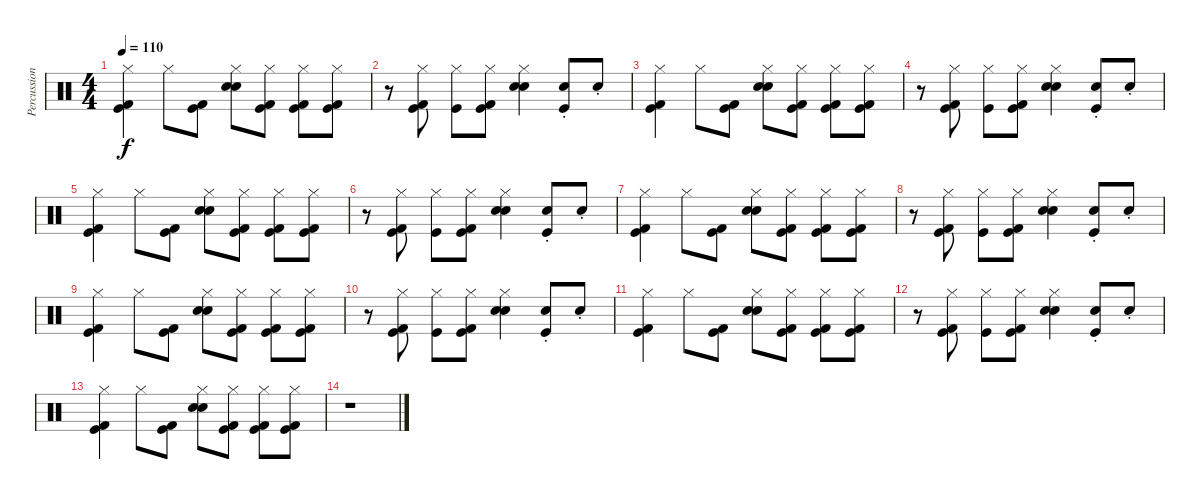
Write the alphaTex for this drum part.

\track ("Percussions" "Percussion") {instrument percussion}
\staff {score}
\articulation defaults
\ts (4 4)
\tempo 110
\clef neutral
\ks c
("Kick (hit) 2" "Kick (hit)" "Hi-Hat (closed)").4{dy f} "Hi-Hat (closed)".8 ("Kick (hit) 2" "Kick (hit)").8 ("Snare (hit) 2" "Hi-Hat (closed)" "Electric Snare (hit)").8 ("Kick (hit) 2" "Kick (hit)" "Hi-Hat (closed)").8 ("Kick (hit) 2" "Kick (hit)" "Hi-Hat (closed)").8 ("Kick (hit) 2" "Kick (hit)" "Hi-Hat (closed)").8 |
r.8 ("Kick (hit) 2" "Kick (hit)" "Hi-Hat (closed)").8 ("Kick (hit)" "Hi-Hat (closed)").8 ("Kick (hit) 2" "Kick (hit)" "Hi-Hat (closed)").8 ("Snare (hit) 2" "Hi-Hat (closed)" "Electric Snare (hit)").4 ("Kick (hit)" "Hand Clap (hit)"{st}).8 "Hand Clap (hit)"{st}.8 |
("Kick (hit) 2" "Kick (hit)" "Hi-Hat (closed)").4 "Hi-Hat (closed)".8 ("Kick (hit) 2" "Kick (hit)").8 ("Snare (hit) 2" "Hi-Hat (closed)" "Electric Snare (hit)").8 ("Kick (hit) 2" "Kick (hit)" "Hi-Hat (closed)").8 ("Kick (hit) 2" "Kick (hit)" "Hi-Hat (closed)").8 ("Kick (hit) 2" "Kick (hit)" "Hi-Hat (closed)").8 |
r.8 ("Kick (hit) 2" "Kick (hit)" "Hi-Hat (closed)").8 ("Kick (hit)" "Hi-Hat (closed)").8 ("Kick (hit) 2" "Kick (hit)" "Hi-Hat (closed)").8 ("Snare (hit) 2" "Hi-Hat (closed)" "Electric Snare (hit)").4 ("Kick (hit)" "Hand Clap (hit)"{st}).8 "Hand Clap (hit)"{st}.8 |
("Kick (hit) 2" "Kick (hit)" "Hi-Hat (closed)").4 "Hi-Hat (closed)".8 ("Kick (hit) 2" "Kick (hit)").8 ("Snare (hit) 2" "Hi-Hat (closed)" "Electric Snare (hit)").8 ("Kick (hit) 2" "Kick (hit)" "Hi-Hat (closed)").8 ("Kick (hit) 2" "Kick (hit)" "Hi-Hat (closed)").8 ("Kick (hit) 2" "Kick (hit)" "Hi-Hat (closed)").8 |
r.8 ("Kick (hit) 2" "Kick (hit)" "Hi-Hat (closed)").8 ("Kick (hit)" "Hi-Hat (closed)").8 ("Kick (hit) 2" "Kick (hit)" "Hi-Hat (closed)").8 ("Snare (hit) 2" "Hi-Hat (closed)" "Electric Snare (hit)").4 ("Kick (hit)" "Hand Clap (hit)"{st}).8 "Hand Clap (hit)"{st}.8 |
("Kick (hit) 2" "Kick (hit)" "Hi-Hat (closed)").4 "Hi-Hat (closed)".8 ("Kick (hit) 2" "Kick (hit)").8 ("Snare (hit) 2" "Hi-Hat (closed)" "Electric Snare (hit)").8 ("Kick (hit) 2" "Kick (hit)" "Hi-Hat (closed)").8 ("Kick (hit) 2" "Kick (hit)" "Hi-Hat (closed)").8 ("Kick (hit) 2" "Kick (hit)" "Hi-Hat (closed)").8 |
r.8 ("Kick (hit) 2" "Kick (hit)" "Hi-Hat (closed)").8 ("Kick (hit)" "Hi-Hat (closed)").8 ("Kick (hit) 2" "Kick (hit)" "Hi-Hat (closed)").8 ("Snare (hit) 2" "Hi-Hat (closed)" "Electric Snare (hit)").4 ("Kick (hit)" "Hand Clap (hit)"{st}).8 "Hand Clap (hit)"{st}.8 |
("Kick (hit) 2" "Kick (hit)" "Hi-Hat (closed)").4 "Hi-Hat (closed)".8 ("Kick (hit) 2" "Kick (hit)").8 ("Snare (hit) 2" "Hi-Hat (closed)" "Electric Snare (hit)").8 ("Kick (hit) 2" "Kick (hit)" "Hi-Hat (closed)").8 ("Kick (hit) 2" "Kick (hit)" "Hi-Hat (closed)").8 ("Kick (hit) 2" "Kick (hit)" "Hi-Hat (closed)").8 |
r.8 ("Kick (hit) 2" "Kick (hit)" "Hi-Hat (closed)").8 ("Kick (hit)" "Hi-Hat (closed)").8 ("Kick (hit) 2" "Kick (hit)" "Hi-Hat (closed)").8 ("Snare (hit) 2" "Hi-Hat (closed)" "Electric Snare (hit)").4 ("Kick (hit)" "Hand Clap (hit)"{st}).8 "Hand Clap (hit)"{st}.8 |
("Kick (hit) 2" "Kick (hit)" "Hi-Hat (closed)").4 "Hi-Hat (closed)".8 ("Kick (hit) 2" "Kick (hit)").8 ("Snare (hit) 2" "Hi-Hat (closed)" "Electric Snare (hit)").8 ("Kick (hit) 2" "Kick (hit)" "Hi-Hat (closed)").8 ("Kick (hit) 2" "Kick (hit)" "Hi-Hat (closed)").8 ("Kick (hit) 2" "Kick (hit)" "Hi-Hat (closed)").8 |
r.8 ("Kick (hit) 2" "Kick (hit)" "Hi-Hat (closed)").8 ("Kick (hit)" "Hi-Hat (closed)").8 ("Kick (hit) 2" "Kick (hit)" "Hi-Hat (closed)").8 ("Snare (hit) 2" "Hi-Hat (closed)" "Electric Snare (hit)").4 ("Kick (hit)" "Hand Clap (hit)"{st}).8 "Hand Clap (hit)"{st}.8 |
("Kick (hit) 2" "Kick (hit)" "Hi-Hat (closed)").4 "Hi-Hat (closed)".8 ("Kick (hit) 2" "Kick (hit)").8 ("Snare (hit) 2" "Hi-Hat (closed)" "Electric Snare (hit)").8 ("Kick (hit) 2" "Kick (hit)" "Hi-Hat (closed)").8 ("Kick (hit) 2" "Kick (hit)" "Hi-Hat (closed)").8 ("Kick (hit) 2" "Kick (hit)" "Hi-Hat (closed)").8 |
r.1
